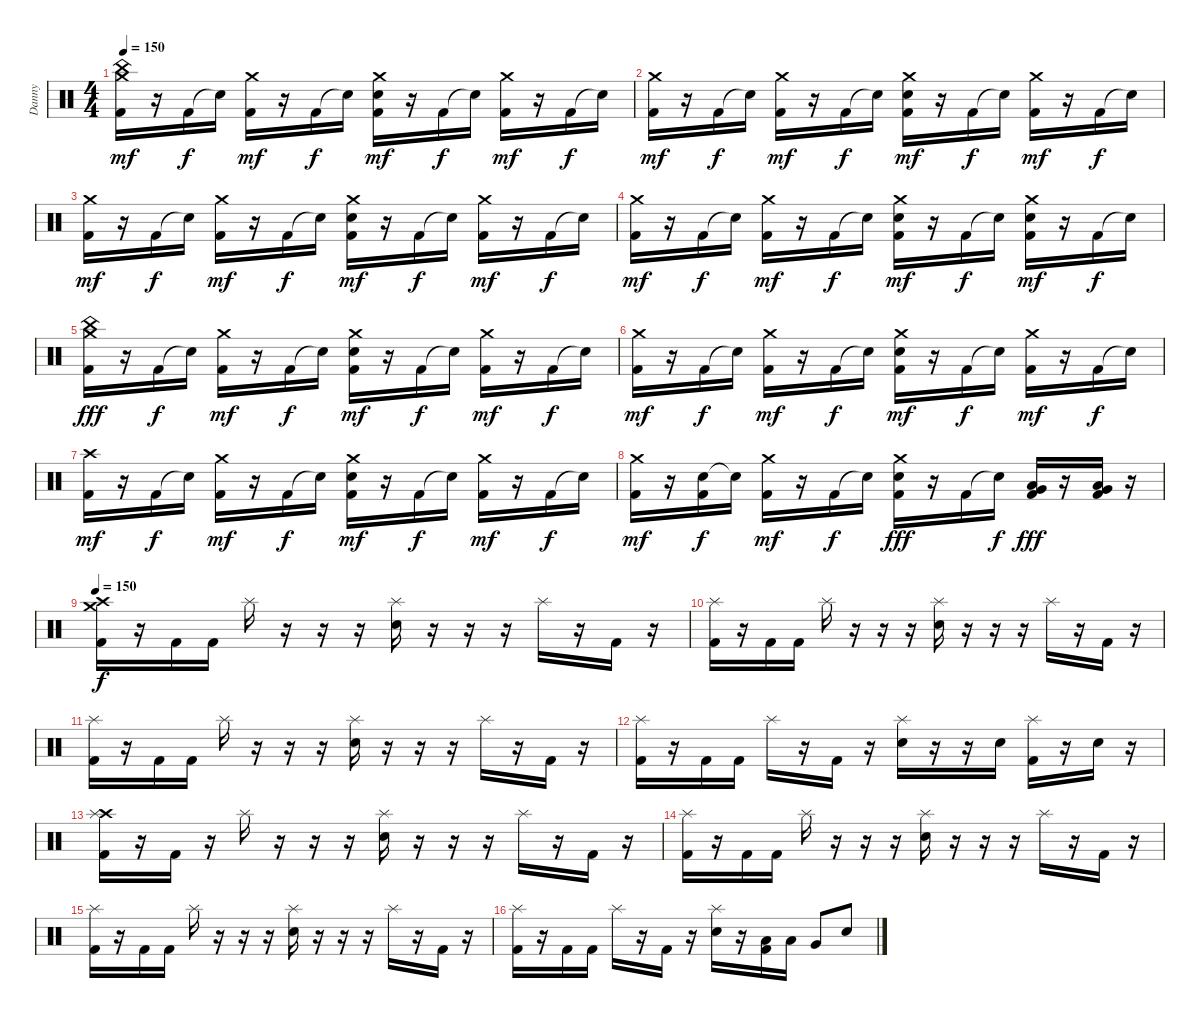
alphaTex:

\track ("Danny" "Danny") {instrument percussion}
\staff {score}
\articulation defaults
\ts (4 4)
\tempo 150
\clef neutral
\ks c
("China (hit)" "Crash medium (hit)" "Kick (hit) 2").16{dy mf} r.16 "Kick (hit) 2".16{dy f} "Snare (hit)"{t}.16 ("Crash medium (hit)" "Kick (hit) 2").16{dy mf} r.16 "Kick (hit) 2".16{dy f} "Snare (hit)"{t}.16 ("Crash medium (hit)" "Snare (hit) 2" "Kick (hit) 2").16{dy mf} r.16 "Kick (hit) 2".16{dy f} "Snare (hit)"{t}.16 ("Crash medium (hit)" "Kick (hit) 2").16{dy mf} r.16 "Kick (hit) 2".16{dy f} "Snare (hit)"{t}.16 |
("Crash medium (hit)" "Kick (hit) 2").16{dy mf} r.16 "Kick (hit) 2".16{dy f} "Snare (hit)"{t}.16 ("Crash medium (hit)" "Kick (hit) 2").16{dy mf} r.16 "Kick (hit) 2".16{dy f} "Snare (hit)"{t}.16 ("Crash medium (hit)" "Snare (hit) 2" "Kick (hit) 2").16{dy mf} r.16 "Kick (hit) 2".16{dy f} "Snare (hit)"{t}.16 ("Crash medium (hit)" "Kick (hit) 2").16{dy mf} r.16 "Kick (hit) 2".16{dy f} "Snare (hit)"{t}.16 |
("Crash medium (hit)" "Kick (hit) 2").16{dy mf} r.16 "Kick (hit) 2".16{dy f} "Snare (hit)"{t}.16 ("Crash medium (hit)" "Kick (hit) 2").16{dy mf} r.16 "Kick (hit) 2".16{dy f} "Snare (hit)"{t}.16 ("Crash medium (hit)" "Snare (hit) 2" "Kick (hit) 2").16{dy mf} r.16 "Kick (hit) 2".16{dy f} "Snare (hit)"{t}.16 ("Crash medium (hit)" "Kick (hit) 2").16{dy mf} r.16 "Kick (hit) 2".16{dy f} "Snare (hit)"{t}.16 |
("Crash medium (hit)" "Kick (hit) 2").16{dy mf} r.16 "Kick (hit) 2".16{dy f} "Snare (hit)"{t}.16 ("Crash medium (hit)" "Kick (hit) 2").16{dy mf} r.16 "Kick (hit) 2".16{dy f} "Snare (hit)"{t}.16 ("Crash medium (hit)" "Snare (hit) 2" "Kick (hit) 2").16{dy mf} r.16 "Kick (hit) 2".16{dy f} "Snare (hit)"{t}.16 ("Crash medium (hit)" "Snare (hit) 2" "Kick (hit) 2").16{dy mf} r.16 "Kick (hit) 2".16{dy f} "Snare (hit)"{t}.16 |
("Crash medium (hit)" "China (hit)" "Kick (hit) 2").16{dy fff} r.16 "Kick (hit) 2".16{dy f} "Snare (hit)"{t}.16 ("Crash medium (hit)" "Kick (hit) 2").16{dy mf} r.16 "Kick (hit) 2".16{dy f} "Snare (hit)"{t}.16 ("Crash medium (hit)" "Snare (hit) 2" "Kick (hit) 2").16{dy mf} r.16 "Kick (hit) 2".16{dy f} "Snare (hit)"{t}.16 ("Crash medium (hit)" "Kick (hit) 2").16{dy mf} r.16 "Kick (hit) 2".16{dy f} "Snare (hit)"{t}.16 |
("Crash medium (hit)" "Kick (hit) 2").16{dy mf} r.16 "Kick (hit) 2".16{dy f} "Snare (hit)"{t}.16 ("Crash medium (hit)" "Kick (hit) 2").16{dy mf} r.16 "Kick (hit) 2".16{dy f} "Snare (hit)"{t}.16 ("Crash medium (hit)" "Snare (hit) 2" "Kick (hit) 2").16{dy mf} r.16 "Kick (hit) 2".16{dy f} "Snare (hit)"{t}.16 ("Crash medium (hit)" "Kick (hit) 2").16{dy mf} r.16 "Kick (hit) 2".16{dy f} "Snare (hit)"{t}.16 |
("Crash high (hit)" "Kick (hit) 2").16{dy mf} r.16 "Kick (hit) 2".16{dy f} "Snare (hit)"{t}.16 ("Crash medium (hit)" "Kick (hit) 2").16{dy mf} r.16 "Kick (hit) 2".16{dy f} "Snare (hit)"{t}.16 ("Crash medium (hit)" "Snare (hit) 2" "Kick (hit) 2").16{dy mf} r.16 "Kick (hit) 2".16{dy f} "Snare (hit)"{t}.16 ("Crash medium (hit)" "Kick (hit) 2").16{dy mf} r.16 "Kick (hit) 2".16{dy f} "Snare (hit)"{t}.16 |
("Crash medium (hit)" "Kick (hit) 2").16{dy mf} r.16 ("Snare (hit) 2" "Kick (hit) 2").16{dy f} "Snare (hit)"{t}.16 ("Crash medium (hit)" "Kick (hit) 2").16{dy mf} r.16 "Kick (hit) 2".16{dy f} "Snare (hit)"{t}.16 ("Crash medium (hit)" "Snare (hit) 2" "Kick (hit) 2").16{dy fff} r.16 "Kick (hit) 2".16 "Snare (hit)"{t}.16{dy f} ("Low Tom (hit)" "Very Low Tom (hit)" "Kick (hit) 2").16{dy fff} r.16 ("Very Low Tom (hit)" "Low Floor Tom (hit)" "Kick (hit) 2").16 r.16 |
\tempo 150
("Crash high (hit)" "Crash medium (hit)" "Kick (hit) 2").16{dy f} r.16 "Kick (hit) 2".16 "Kick (hit) 2".16 "Splash (hit)".16 r.16 r.16 r.16 ("Splash (hit)" "Snare (hit) 2").16 r.16 r.16 r.16 "Splash (hit)".16 r.16 "Kick (hit) 2".16 r.16 |
("Splash (hit)" "Kick (hit) 2").16 r.16 "Kick (hit) 2".16 "Kick (hit) 2".16 "Splash (hit)".16 r.16 r.16 r.16 ("Splash (hit)" "Snare (hit) 2").16 r.16 r.16 r.16 "Splash (hit)".16 r.16 "Kick (hit) 2".16 r.16 |
("Splash (hit)" "Kick (hit) 2").16 r.16 "Kick (hit) 2".16 "Kick (hit) 2".16 "Splash (hit)".16 r.16 r.16 r.16 ("Splash (hit)" "Snare (hit) 2").16 r.16 r.16 r.16 "Splash (hit)".16 r.16 "Kick (hit) 2".16 r.16 |
("Splash (hit)" "Kick (hit) 2").16 r.16 "Kick (hit) 2".16 "Kick (hit) 2".16 "Splash (hit)".16 r.16 "Kick (hit) 2".16 r.16 ("Splash (hit)" "Snare (hit) 2").16 r.16 r.16 "Snare (hit) 2".16 ("Splash (hit)" "Kick (hit) 2").16 r.16 "Snare (hit) 2".16 r.16 |
("Crash high (hit)" "Splash (hit)" "Kick (hit) 2").16 r.16 "Kick (hit) 2".16 r.16 "Splash (hit)".16 r.16 r.16 r.16 ("Splash (hit)" "Snare (hit) 2").16 r.16 r.16 r.16 "Splash (hit)".16 r.16 "Kick (hit) 2".16 r.16 |
("Splash (hit)" "Kick (hit) 2").16 r.16 "Kick (hit) 2".16 "Kick (hit) 2".16 "Splash (hit)".16 r.16 r.16 r.16 ("Splash (hit)" "Snare (hit) 2").16 r.16 r.16 r.16 "Splash (hit)".16 r.16 "Kick (hit) 2".16 r.16 |
("Splash (hit)" "Kick (hit) 2").16 r.16 "Kick (hit) 2".16 "Kick (hit) 2".16 "Splash (hit)".16 r.16 r.16 r.16 ("Splash (hit)" "Snare (hit) 2").16 r.16 r.16 r.16 "Splash (hit)".16 r.16 "Kick (hit) 2".16 r.16 |
("Splash (hit)" "Kick (hit) 2").16 r.16 "Kick (hit) 2".16 "Kick (hit) 2".16 "Splash (hit)".16 r.16 "Kick (hit) 2".16 r.16 ("Splash (hit)" "Snare (hit) 2").16 r.16 ("Low Tom (hit)" "Kick (hit) 2").16 "Low Tom (hit)".16 "Very Low Tom (hit)".8 "Snare (hit) 2".8
